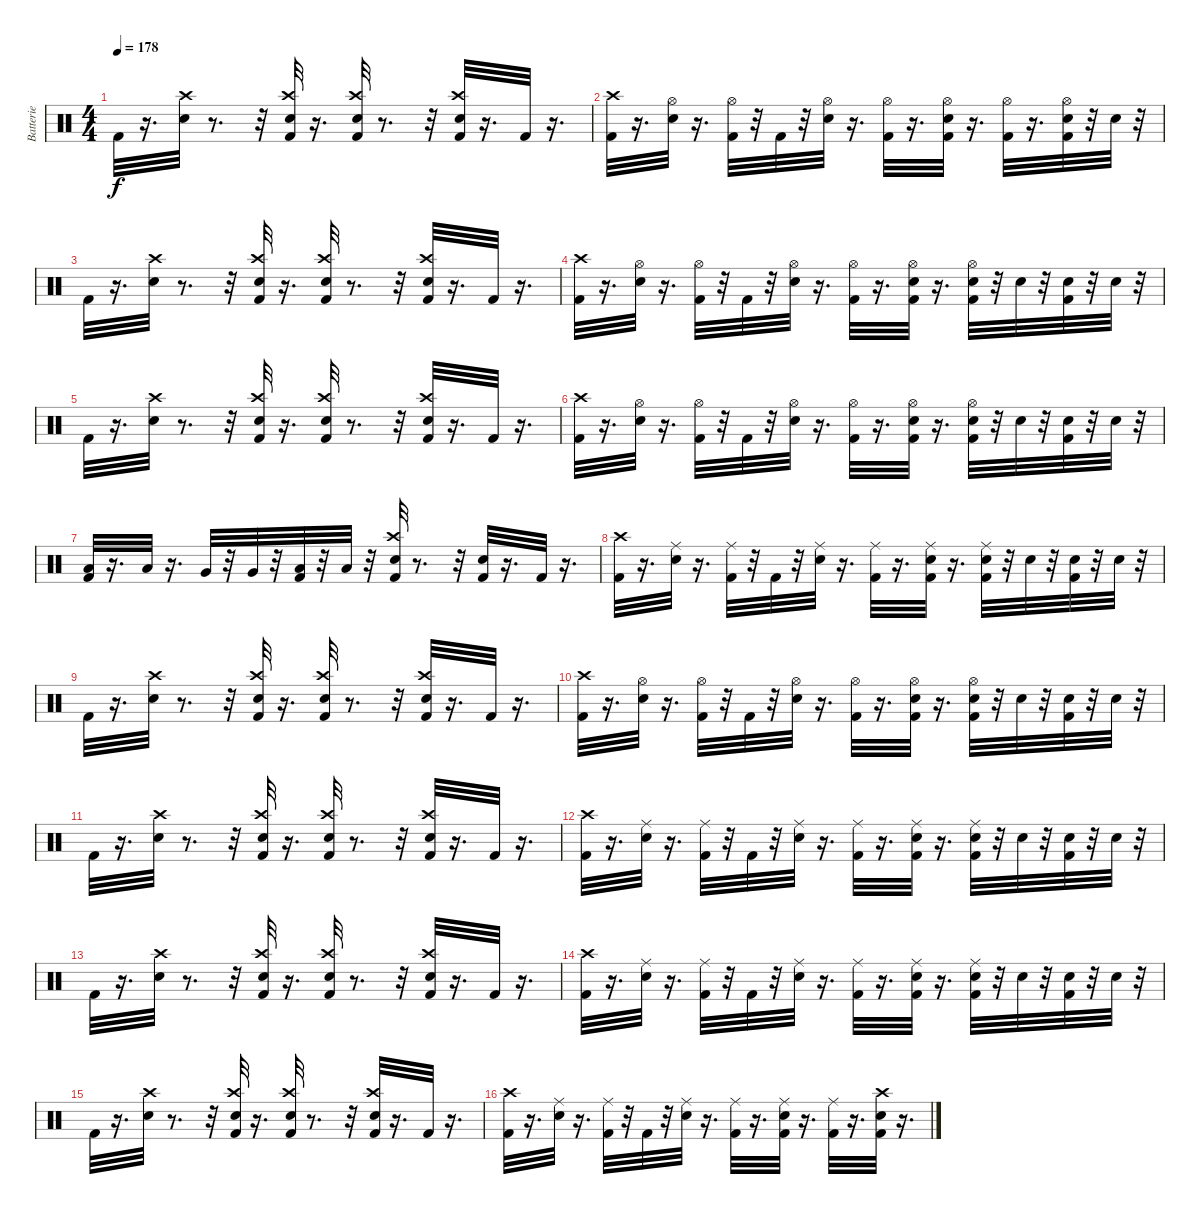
\track ("Batterie" "Batterie") {instrument percussion}
\staff {score}
\articulation defaults
\ts (4 4)
\tempo 178
\clef neutral
\ks c "Kick (hit) 2".32{dy f}
r.16{d} ("Crash high (hit)" "Electric Snare (hit)").32 r.8{d} r.32 ("Crash high (hit)" "Electric Snare (hit)" "Kick (hit) 2").32 r.16{d} ("Crash high (hit)" "Electric Snare (hit)" "Kick (hit) 2").32 r.8{d} r.32 ("Crash high (hit)" "Kick (hit) 2" "Electric Snare (hit)").32 r.16{d} "Kick (hit) 2".32 r.16{d} |
("Kick (hit) 2" "Crash high (hit)").32 r.16{d} ("Electric Snare (hit)" "Hi-Hat (open)").32 r.16{d} ("Kick (hit) 2" "Hi-Hat (open)").32 r.32 "Kick (hit) 2".32 r.32 ("Electric Snare (hit)" "Hi-Hat (open)").32 r.16{d} ("Kick (hit) 2" "Hi-Hat (open)").32 r.16{d} ("Electric Snare (hit)" "Kick (hit) 2" "Hi-Hat (open)").32 r.16{d} ("Kick (hit) 2" "Hi-Hat (open)").32 r.16{d} ("Electric Snare (hit)" "Kick (hit) 2" "Hi-Hat (open)").32 r.32 "Electric Snare (hit)".32 r.32 |
"Kick (hit) 2".32 r.16{d} ("Crash high (hit)" "Electric Snare (hit)").32 r.8{d} r.32 ("Crash high (hit)" "Electric Snare (hit)" "Kick (hit) 2").32 r.16{d} ("Crash high (hit)" "Electric Snare (hit)" "Kick (hit) 2").32 r.8{d} r.32 ("Crash high (hit)" "Kick (hit) 2" "Electric Snare (hit)").32 r.16{d} "Kick (hit) 2".32 r.16{d} |
("Kick (hit) 2" "Crash high (hit)").32 r.16{d} ("Electric Snare (hit)" "Hi-Hat (open)").32 r.16{d} ("Kick (hit) 2" "Hi-Hat (open)").32 r.32 "Kick (hit) 2".32 r.32 ("Electric Snare (hit)" "Hi-Hat (open)").32 r.16{d} ("Kick (hit) 2" "Hi-Hat (open)").32 r.16{d} ("Electric Snare (hit)" "Kick (hit) 2" "Hi-Hat (open)").32 r.16{d} ("Kick (hit) 2" "Hi-Hat (open)" "Electric Snare (hit)").32 r.32 "Electric Snare (hit)".32 r.32 ("Electric Snare (hit)" "Kick (hit) 2").32 r.32 "Electric Snare (hit)".32 r.32 |
"Kick (hit) 2".32 r.16{d} ("Crash high (hit)" "Electric Snare (hit)").32 r.8{d} r.32 ("Crash high (hit)" "Electric Snare (hit)" "Kick (hit) 2").32 r.16{d} ("Crash high (hit)" "Electric Snare (hit)" "Kick (hit) 2").32 r.8{d} r.32 ("Crash high (hit)" "Kick (hit) 2" "Electric Snare (hit)").32 r.16{d} "Kick (hit) 2".32 r.16{d} |
("Kick (hit) 2" "Crash high (hit)").32 r.16{d} ("Electric Snare (hit)" "Hi-Hat (open)").32 r.16{d} ("Kick (hit) 2" "Hi-Hat (open)").32 r.32 "Kick (hit) 2".32 r.32 ("Electric Snare (hit)" "Hi-Hat (open)").32 r.16{d} ("Kick (hit) 2" "Hi-Hat (open)").32 r.16{d} ("Electric Snare (hit)" "Kick (hit) 2" "Hi-Hat (open)").32 r.16{d} ("Kick (hit) 2" "Hi-Hat (open)" "Electric Snare (hit)").32 r.32 "Electric Snare (hit)".32 r.32 ("Kick (hit) 2" "Electric Snare (hit)").32 r.32 "Electric Snare (hit)".32 r.32 |
("Kick (hit) 2" "Low Floor Tom (hit)").32 r.16{d} "Low Tom (hit)".32 r.16{d} "Very Low Tom (hit)".32 r.32 "Very Low Tom (hit)".32 r.32 ("Kick (hit) 2" "Low Floor Tom (hit)").32 r.32 "Low Floor Tom (hit)".32 r.32 ("Kick (hit) 2" "Electric Snare (hit)" "Crash high (hit)").32 r.8{d} r.32 ("Kick (hit) 2" "Electric Snare (hit)").32 r.16{d} "Kick (hit) 2".32 r.16{d} |
("Kick (hit) 2" "Crash high (hit)").32 r.16{d} ("Electric Snare (hit)" "Ride (middle)").32 r.16{d} ("Kick (hit) 2" "Ride (middle)").32 r.32 "Kick (hit) 2".32 r.32 ("Electric Snare (hit)" "Ride (middle)").32 r.16{d} ("Kick (hit) 2" "Ride (middle)").32 r.16{d} ("Electric Snare (hit)" "Kick (hit) 2" "Ride (middle)").32 r.16{d} ("Kick (hit) 2" "Electric Snare (hit)" "Ride (middle)").32 r.32 "Electric Snare (hit)".32 r.32 ("Electric Snare (hit)" "Kick (hit) 2").32 r.32 "Electric Snare (hit)".32 r.32 |
"Kick (hit) 2".32 r.16{d} ("Crash high (hit)" "Electric Snare (hit)").32 r.8{d} r.32 ("Crash high (hit)" "Electric Snare (hit)" "Kick (hit) 2").32 r.16{d} ("Crash high (hit)" "Electric Snare (hit)" "Kick (hit) 2").32 r.8{d} r.32 ("Crash high (hit)" "Kick (hit) 2" "Electric Snare (hit)").32 r.16{d} "Kick (hit) 2".32 r.16{d} |
("Kick (hit) 2" "Crash high (hit)").32 r.16{d} ("Electric Snare (hit)" "Hi-Hat (open)").32 r.16{d} ("Kick (hit) 2" "Hi-Hat (open)").32 r.32 "Kick (hit) 2".32 r.32 ("Electric Snare (hit)" "Hi-Hat (open)").32 r.16{d} ("Kick (hit) 2" "Hi-Hat (open)").32 r.16{d} ("Electric Snare (hit)" "Kick (hit) 2" "Hi-Hat (open)").32 r.16{d} ("Kick (hit) 2" "Electric Snare (hit)" "Hi-Hat (open)").32 r.32 "Electric Snare (hit)".32 r.32 ("Electric Snare (hit)" "Kick (hit) 2").32 r.32 "Electric Snare (hit)".32 r.32 |
"Kick (hit) 2".32 r.16{d} ("Crash high (hit)" "Electric Snare (hit)").32 r.8{d} r.32 ("Crash high (hit)" "Electric Snare (hit)" "Kick (hit) 2").32 r.16{d} ("Crash high (hit)" "Electric Snare (hit)" "Kick (hit) 2").32 r.8{d} r.32 ("Crash high (hit)" "Kick (hit) 2" "Electric Snare (hit)").32 r.16{d} "Kick (hit) 2".32 r.16{d} |
("Kick (hit) 2" "Crash high (hit)").32 r.16{d} ("Electric Snare (hit)" "Ride (middle)").32 r.16{d} ("Kick (hit) 2" "Ride (middle)").32 r.32 "Kick (hit) 2".32 r.32 ("Electric Snare (hit)" "Ride (middle)").32 r.16{d} ("Kick (hit) 2" "Ride (middle)").32 r.16{d} ("Electric Snare (hit)" "Kick (hit) 2" "Ride (middle)").32 r.16{d} ("Kick (hit) 2" "Electric Snare (hit)" "Ride (middle)").32 r.32 "Electric Snare (hit)".32 r.32 ("Electric Snare (hit)" "Kick (hit) 2").32 r.32 "Electric Snare (hit)".32 r.32 |
"Kick (hit) 2".32 r.16{d} ("Crash high (hit)" "Electric Snare (hit)").32 r.8{d} r.32 ("Crash high (hit)" "Electric Snare (hit)" "Kick (hit) 2").32 r.16{d} ("Crash high (hit)" "Electric Snare (hit)" "Kick (hit) 2").32 r.8{d} r.32 ("Crash high (hit)" "Kick (hit) 2" "Electric Snare (hit)").32 r.16{d} "Kick (hit) 2".32 r.16{d} |
("Kick (hit) 2" "Crash high (hit)").32 r.16{d} ("Electric Snare (hit)" "Ride (middle)").32 r.16{d} ("Kick (hit) 2" "Ride (middle)").32 r.32 "Kick (hit) 2".32 r.32 ("Electric Snare (hit)" "Ride (middle)").32 r.16{d} ("Kick (hit) 2" "Ride (middle)").32 r.16{d} ("Electric Snare (hit)" "Kick (hit) 2" "Ride (middle)").32 r.16{d} ("Kick (hit) 2" "Electric Snare (hit)" "Ride (middle)").32 r.32 "Electric Snare (hit)".32 r.32 ("Electric Snare (hit)" "Kick (hit) 2").32 r.32 "Electric Snare (hit)".32 r.32 |
"Kick (hit) 2".32 r.16{d} ("Crash high (hit)" "Electric Snare (hit)").32 r.8{d} r.32 ("Crash high (hit)" "Electric Snare (hit)" "Kick (hit) 2").32 r.16{d} ("Crash high (hit)" "Electric Snare (hit)" "Kick (hit) 2").32 r.8{d} r.32 ("Crash high (hit)" "Kick (hit) 2" "Electric Snare (hit)").32 r.16{d} "Kick (hit) 2".32 r.16{d} |
("Kick (hit) 2" "Crash high (hit)").32 r.16{d} ("Electric Snare (hit)" "Ride (middle)").32 r.16{d} ("Kick (hit) 2" "Ride (middle)").32 r.32 "Kick (hit) 2".32 r.32 ("Electric Snare (hit)" "Ride (middle)").32 r.16{d} ("Kick (hit) 2" "Ride (middle)").32 r.16{d} ("Electric Snare (hit)" "Kick (hit) 2" "Ride (middle)").32 r.16{d} ("Kick (hit) 2" "Ride (middle)").32 r.16{d} ("Kick (hit) 2" "Crash high (hit)" "Electric Snare (hit)").32 r.16{d}
